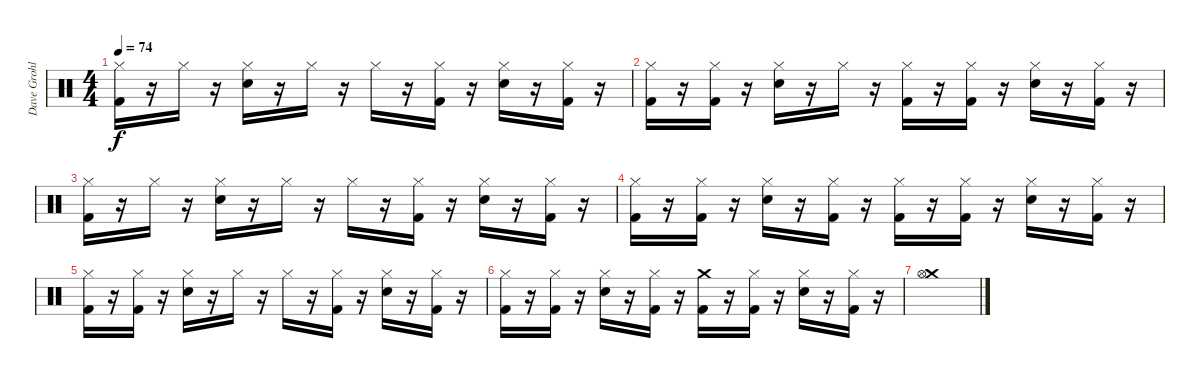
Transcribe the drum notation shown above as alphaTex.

\track ("Dave Grohl" "Dave Grohl") {instrument percussion}
\staff {score}
\articulation defaults
\ts (4 4)
\tempo 74
\clef neutral
\ks c
("Hi-Hat (closed)" "Kick (hit) 2").16{dy f} r.16 "Hi-Hat (closed)".16 r.16 ("Hi-Hat (closed)" "Snare (hit) 2").16 r.16 "Hi-Hat (closed)".16 r.16 "Hi-Hat (closed)".16 r.16 ("Hi-Hat (closed)" "Kick (hit) 2").16 r.16 ("Hi-Hat (closed)" "Snare (hit) 2").16 r.16 ("Hi-Hat (closed)" "Kick (hit) 2").16 r.16 |
("Hi-Hat (closed)" "Kick (hit) 2").16 r.16 ("Hi-Hat (closed)" "Kick (hit) 2").16 r.16 ("Hi-Hat (closed)" "Snare (hit) 2").16 r.16 "Hi-Hat (closed)".16 r.16 ("Hi-Hat (closed)" "Kick (hit) 2").16 r.16 ("Hi-Hat (closed)" "Kick (hit) 2").16 r.16 ("Hi-Hat (closed)" "Snare (hit) 2").16 r.16 ("Hi-Hat (closed)" "Kick (hit) 2").16 r.16 |
("Hi-Hat (closed)" "Kick (hit) 2").16 r.16 "Hi-Hat (closed)".16 r.16 ("Hi-Hat (closed)" "Snare (hit) 2").16 r.16 "Hi-Hat (closed)".16 r.16 "Hi-Hat (closed)".16 r.16 ("Hi-Hat (closed)" "Kick (hit) 2").16 r.16 ("Hi-Hat (closed)" "Snare (hit) 2").16 r.16 ("Hi-Hat (closed)" "Kick (hit) 2").16 r.16 |
("Hi-Hat (closed)" "Kick (hit) 2").16 r.16 ("Hi-Hat (closed)" "Kick (hit) 2").16 r.16 ("Hi-Hat (closed)" "Snare (hit) 2").16 r.16 ("Hi-Hat (closed)" "Kick (hit) 2").16 r.16 ("Hi-Hat (closed)" "Kick (hit) 2").16 r.16 ("Hi-Hat (closed)" "Kick (hit) 2").16 r.16 ("Hi-Hat (closed)" "Snare (hit) 2").16 r.16 ("Hi-Hat (closed)" "Kick (hit) 2").16 r.16 |
("Hi-Hat (closed)" "Kick (hit) 2").16 r.16 ("Hi-Hat (closed)" "Kick (hit) 2").16 r.16 ("Hi-Hat (closed)" "Snare (hit) 2").16 r.16 "Hi-Hat (closed)".16 r.16 "Hi-Hat (closed)".16 r.16 ("Hi-Hat (closed)" "Kick (hit) 2").16 r.16 ("Hi-Hat (closed)" "Snare (hit) 2").16 r.16 ("Hi-Hat (closed)" "Kick (hit) 2").16 r.16 |
("Hi-Hat (closed)" "Kick (hit) 2").16 r.16 ("Hi-Hat (closed)" "Kick (hit) 2").16 r.16 ("Hi-Hat (closed)" "Snare (hit) 2").16 r.16 ("Hi-Hat (closed)" "Kick (hit) 2").16 r.16 ("Crash medium (hit)" "Kick (hit) 2").16 r.16 ("Hi-Hat (closed)" "Kick (hit) 2").16 r.16 ("Hi-Hat (closed)" "Snare (hit) 2").16 r.16 ("Hi-Hat (closed)" "Kick (hit) 2").16 r.16 |
("Crash medium (hit)" "Hi-Hat (open)").1
